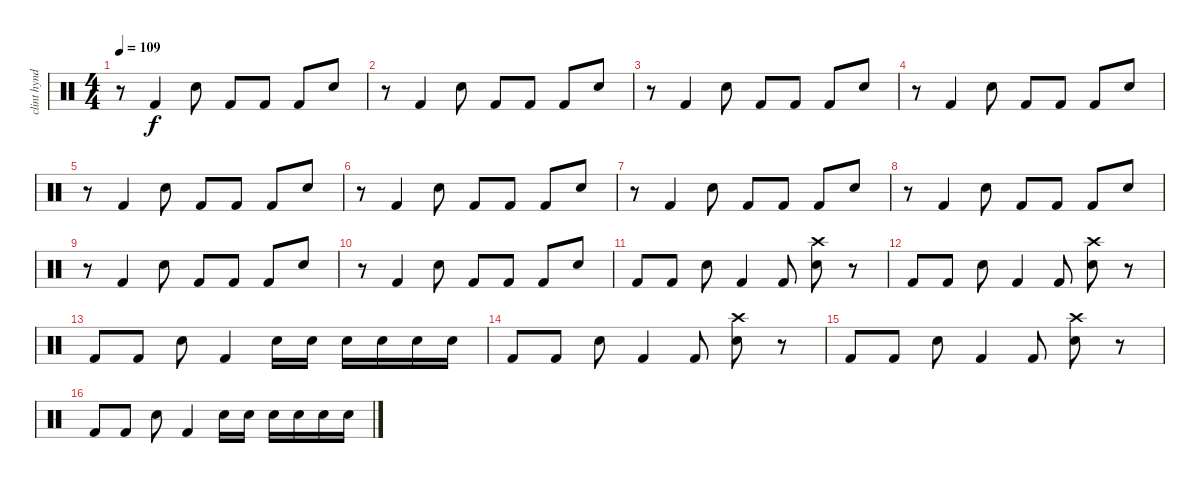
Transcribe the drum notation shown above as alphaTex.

\track ("clint hyndman" "clint hynd") {instrument percussion}
\staff {score}
\articulation defaults
\ts (4 4)
\tempo 109
\clef neutral
\ks c
r.8{dy f} "Kick (hit) 2".4 "Electric Snare (hit)".8 "Kick (hit) 2".8 "Kick (hit) 2".8 "Kick (hit) 2".8 "Electric Snare (hit)".8 |
r.8 "Kick (hit) 2".4 "Electric Snare (hit)".8 "Kick (hit) 2".8 "Kick (hit) 2".8 "Kick (hit) 2".8 "Electric Snare (hit)".8 |
r.8 "Kick (hit) 2".4 "Electric Snare (hit)".8 "Kick (hit) 2".8 "Kick (hit) 2".8 "Kick (hit) 2".8 "Electric Snare (hit)".8 |
r.8 "Kick (hit) 2".4 "Electric Snare (hit)".8 "Kick (hit) 2".8 "Kick (hit) 2".8 "Kick (hit) 2".8 "Electric Snare (hit)".8 |
r.8 "Kick (hit) 2".4 "Electric Snare (hit)".8 "Kick (hit) 2".8 "Kick (hit) 2".8 "Kick (hit) 2".8 "Electric Snare (hit)".8 |
r.8 "Kick (hit) 2".4 "Electric Snare (hit)".8 "Kick (hit) 2".8 "Kick (hit) 2".8 "Kick (hit) 2".8 "Electric Snare (hit)".8 |
r.8 "Kick (hit) 2".4 "Electric Snare (hit)".8 "Kick (hit) 2".8 "Kick (hit) 2".8 "Kick (hit) 2".8 "Electric Snare (hit)".8 |
r.8 "Kick (hit) 2".4 "Electric Snare (hit)".8 "Kick (hit) 2".8 "Kick (hit) 2".8 "Kick (hit) 2".8 "Electric Snare (hit)".8 |
r.8 "Kick (hit) 2".4 "Electric Snare (hit)".8 "Kick (hit) 2".8 "Kick (hit) 2".8 "Kick (hit) 2".8 "Electric Snare (hit)".8 |
r.8 "Kick (hit) 2".4 "Electric Snare (hit)".8 "Kick (hit) 2".8 "Kick (hit) 2".8 "Kick (hit) 2".8 "Electric Snare (hit)".8 |
"Kick (hit) 2".8 "Kick (hit) 2".8 "Electric Snare (hit)".8 "Kick (hit) 2".4 "Kick (hit) 2".8 ("Crash high (hit)" "Electric Snare (hit)").8 r.8 |
"Kick (hit) 2".8 "Kick (hit) 2".8 "Electric Snare (hit)".8 "Kick (hit) 2".4 "Kick (hit) 2".8 ("Crash high (hit)" "Electric Snare (hit)").8 r.8 |
"Kick (hit) 2".8 "Kick (hit) 2".8 "Electric Snare (hit)".8 "Kick (hit) 2".4 "Electric Snare (hit)".16 "Electric Snare (hit)".16 "Electric Snare (hit)".16 "Electric Snare (hit)".16 "Electric Snare (hit)".16 "Electric Snare (hit)".16 |
"Kick (hit) 2".8 "Kick (hit) 2".8 "Electric Snare (hit)".8 "Kick (hit) 2".4 "Kick (hit) 2".8 ("Crash high (hit)" "Electric Snare (hit)").8 r.8 |
"Kick (hit) 2".8 "Kick (hit) 2".8 "Electric Snare (hit)".8 "Kick (hit) 2".4 "Kick (hit) 2".8 ("Crash high (hit)" "Electric Snare (hit)").8 r.8 |
"Kick (hit) 2".8 "Kick (hit) 2".8 "Electric Snare (hit)".8 "Kick (hit) 2".4 "Electric Snare (hit)".16 "Electric Snare (hit)".16 "Electric Snare (hit)".16 "Electric Snare (hit)".16 "Electric Snare (hit)".16 "Electric Snare (hit)".16
